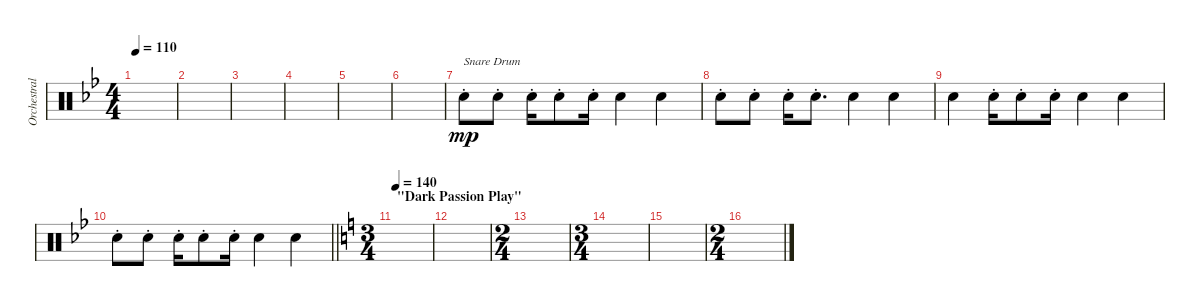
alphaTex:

\track ("Orchestral Percussion I" "Orchestral") {instrument percussion}
\staff {score}
\articulation defaults
\ts (4 4)
\tempo 110
\clef neutral
\ks gminor
|
|
|
|
|
|
"Electric Snare (hit)"{st}.8{txt "Snare Drum" dy mp volume 10} "Electric Snare (hit)"{st}.8 "Electric Snare (hit)"{st}.16 "Electric Snare (hit)"{st}.8 "Electric Snare (hit)"{st}.16 "Electric Snare (hit)".4 "Electric Snare (hit)".4 |
"Electric Snare (hit)"{st}.8 "Electric Snare (hit)"{st}.8 "Electric Snare (hit)"{st}.16 "Electric Snare (hit)"{st}.8{d} "Electric Snare (hit)".4 "Electric Snare (hit)".4 |
"Electric Snare (hit)".4 "Electric Snare (hit)"{st}.16 "Electric Snare (hit)"{st}.8 "Electric Snare (hit)"{st}.16 "Electric Snare (hit)".4 "Electric Snare (hit)".4 |
\barLineRight lightlight "Electric Snare (hit)"{st}.8 "Electric Snare (hit)"{st}.8 "Electric Snare (hit)"{st}.16 "Electric Snare (hit)"{st}.8 "Electric Snare (hit)"{st}.16 "Electric Snare (hit)".4 "Electric Snare (hit)".4
|
\ts (3 4)
\section ("" "\"Dark Passion Play\"")
\tempo 140
\ks aminor
|
|
\ts (2 4)
|
\ts (3 4)
|
|
\ts (2 4)
